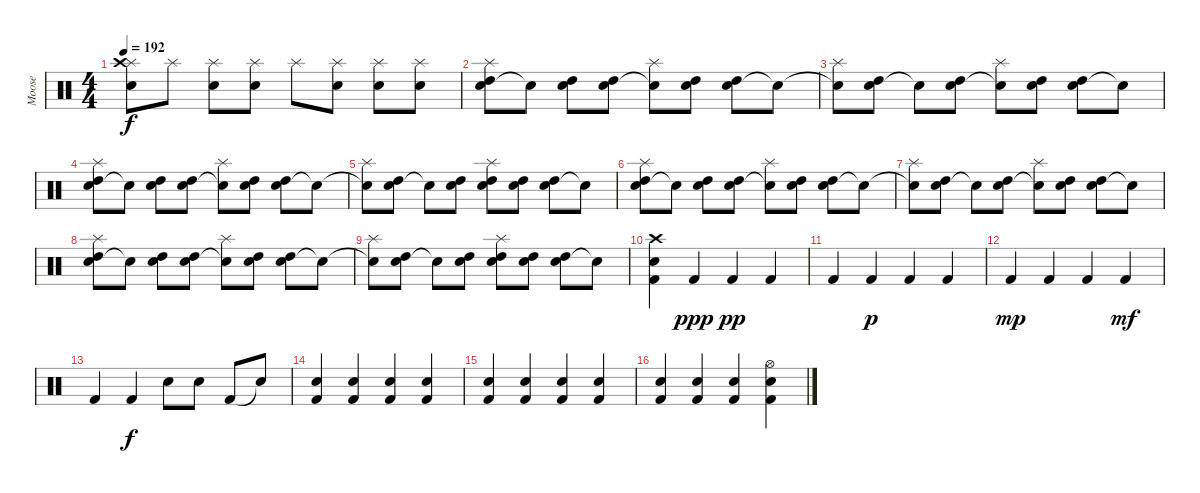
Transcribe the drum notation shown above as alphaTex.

\track ("Moose" "Moose") {instrument percussion}
\staff {score}
\articulation defaults
\ts (4 4)
\tempo 192
\clef neutral
\ks c
("Splash (hit)" "Crash high (hit)" "Electric Snare (hit)").8{dy f} "Splash (hit)".8 ("Splash (hit)" "Electric Snare (hit)").8 ("Splash (hit)" "Electric Snare (hit)").8 "Splash (hit)".8 ("Splash (hit)" "Electric Snare (hit)").8 ("Splash (hit)" "Electric Snare (hit)").8 ("Splash (hit)" "Snare (hit) 2").8 |
("Electric Snare (hit)" "High Tom (hit)" "Splash (hit)").8 "Snare (hit)"{t}.8 ("Electric Snare (hit)" "High Tom (hit)").8 ("Electric Snare (hit)" "High Tom (hit)").8 ("Snare (hit)"{t} "Splash (hit)").8 ("Electric Snare (hit)" "High Tom (hit)").8 ("Electric Snare (hit)" "High Tom (hit)").8 "Snare (hit)"{t}.8 |
("Electric Snare (hit)"{t} "Splash (hit)").8 ("Electric Snare (hit)" "High Tom (hit)").8 "Snare (hit)"{t}.8 ("Electric Snare (hit)" "High Tom (hit)").8 ("Snare (hit)"{t} "Splash (hit)").8 ("Electric Snare (hit)" "High Tom (hit)").8 ("Electric Snare (hit)" "High Tom (hit)").8 "Snare (hit)"{t}.8 |
("Electric Snare (hit)" "High Tom (hit)" "Splash (hit)").8 "Snare (hit)"{t}.8 ("Electric Snare (hit)" "High Tom (hit)").8 ("Electric Snare (hit)" "High Tom (hit)").8 ("Snare (hit)"{t} "Splash (hit)").8 ("Electric Snare (hit)" "High Tom (hit)").8 ("Electric Snare (hit)" "High Tom (hit)").8 "Snare (hit)"{t}.8 |
("Electric Snare (hit)"{t} "Splash (hit)").8 ("Electric Snare (hit)" "High Tom (hit)").8 "Snare (hit)"{t}.8 ("Electric Snare (hit)" "High Tom (hit)").8 ("Electric Snare (hit)" "High Tom (hit)" "Splash (hit)").8 ("Electric Snare (hit)" "High Tom (hit)").8 ("Electric Snare (hit)" "High Tom (hit)").8 "Snare (hit)"{t}.8 |
("Electric Snare (hit)" "High Tom (hit)" "Splash (hit)").8 "Snare (hit)"{t}.8 ("Electric Snare (hit)" "High Tom (hit)").8 ("Electric Snare (hit)" "High Tom (hit)").8 ("Snare (hit)"{t} "Splash (hit)").8 ("Electric Snare (hit)" "High Tom (hit)").8 ("Electric Snare (hit)" "High Tom (hit)").8 "Snare (hit)"{t}.8 |
("Electric Snare (hit)"{t} "Splash (hit)").8 ("Electric Snare (hit)" "High Tom (hit)").8 "Snare (hit)"{t}.8 ("Electric Snare (hit)" "High Tom (hit)").8 ("Snare (hit)"{t} "Splash (hit)").8 ("Electric Snare (hit)" "High Tom (hit)").8 ("Electric Snare (hit)" "High Tom (hit)").8 "Snare (hit)"{t}.8 |
("Electric Snare (hit)" "High Tom (hit)" "Splash (hit)").8 "Snare (hit)"{t}.8 ("Electric Snare (hit)" "High Tom (hit)").8 ("Electric Snare (hit)" "High Tom (hit)").8 ("Snare (hit)"{t} "Splash (hit)").8 ("Electric Snare (hit)" "High Tom (hit)").8 ("Electric Snare (hit)" "High Tom (hit)").8 "Snare (hit)"{t}.8 |
("Electric Snare (hit)"{t} "Splash (hit)").8 ("Electric Snare (hit)" "High Tom (hit)").8 "Snare (hit)"{t}.8 ("Electric Snare (hit)" "High Tom (hit)").8 ("Electric Snare (hit)" "High Tom (hit)" "Splash (hit)").8 ("Electric Snare (hit)" "High Tom (hit)").8 ("Electric Snare (hit)" "High Tom (hit)").8 "Snare (hit)"{t}.8 |
("Electric Snare (hit)" "Kick (hit) 2" "Crash high (hit)").4 "Kick (hit) 2".4{dy ppp} "Kick (hit) 2".4{dy pp} "Kick (hit) 2".4 |
"Kick (hit) 2".4 "Kick (hit) 2".4{dy p} "Kick (hit) 2".4 "Kick (hit) 2".4 |
"Kick (hit) 2".4{dy mp} "Kick (hit) 2".4 "Kick (hit) 2".4 "Kick (hit) 2".4{dy mf} |
"Kick (hit) 2".4 "Kick (hit) 2".4{dy f} "Electric Snare (hit)".8 "Electric Snare (hit)".8 "Kick (hit) 2".8 "Snare (hit)"{t}.8 |
("Electric Snare (hit)" "Kick (hit) 2").4 ("Electric Snare (hit)" "Kick (hit) 2").4 ("Electric Snare (hit)" "Kick (hit) 2").4 ("Electric Snare (hit)" "Kick (hit) 2").4 |
("Electric Snare (hit)" "Kick (hit) 2").4 ("Electric Snare (hit)" "Kick (hit) 2").4 ("Electric Snare (hit)" "Kick (hit) 2").4 ("Electric Snare (hit)" "Kick (hit) 2").4 |
("Electric Snare (hit)" "Kick (hit) 2").4 ("Electric Snare (hit)" "Kick (hit) 2").4 ("Electric Snare (hit)" "Kick (hit) 2").4 ("Kick (hit) 2" "Snare (hit) 2" "Hi-Hat (open)").4
